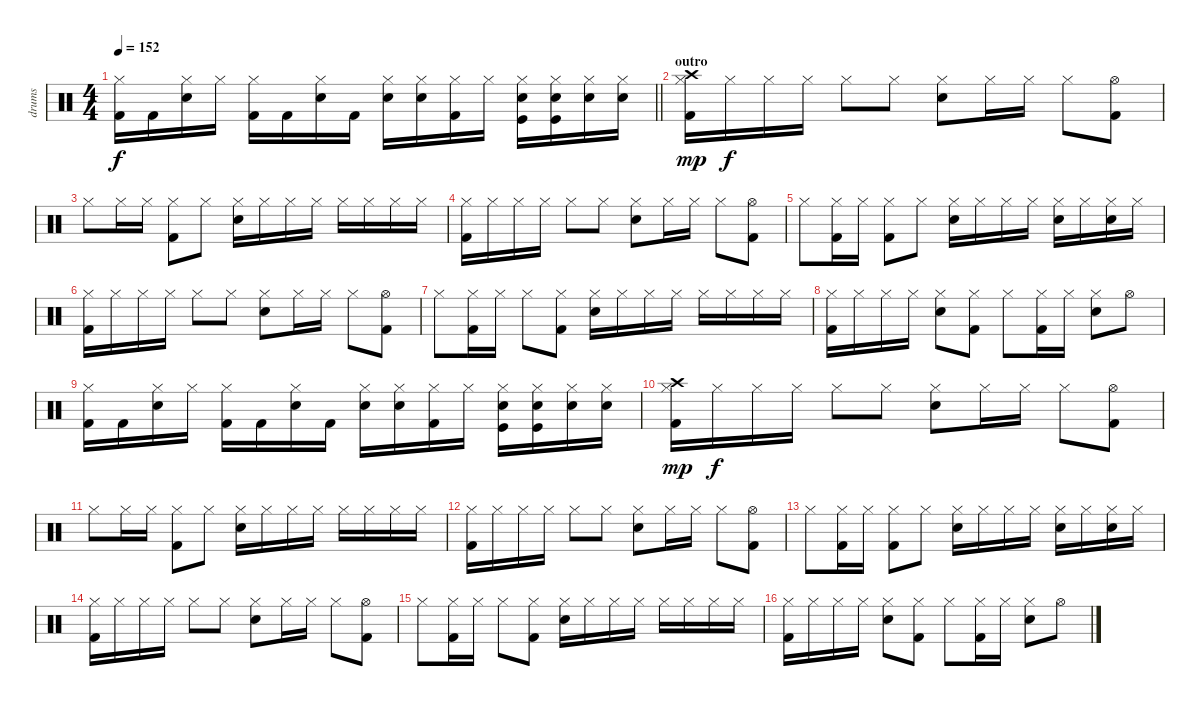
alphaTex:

\track ("drums" "drums") {instrument percussion}
\staff {score}
\articulation defaults
\ts (4 4)
\tempo 152
\clef neutral
\barLineRight lightlight
\ks c
("Hi-Hat (closed)" "Kick (hit) 2").16{dy f} "Kick (hit) 2".16 ("Hi-Hat (closed)" "Snare (hit) 2").16 "Hi-Hat (closed)".16 ("Hi-Hat (closed)" "Kick (hit) 2").16 "Kick (hit) 2".16 ("Hi-Hat (closed)" "Snare (hit) 2").16 "Kick (hit) 2".16 ("Hi-Hat (closed)" "Snare (hit) 2").16 ("Hi-Hat (closed)" "Snare (hit) 2").16 ("Hi-Hat (closed)" "Kick (hit) 2").16 "Hi-Hat (closed)".16 ("Hi-Hat (closed)" "Snare (hit) 2" "Kick (hit)").16 ("Hi-Hat (closed)" "Snare (hit) 2" "Kick (hit)").16 ("Hi-Hat (closed)" "Snare (hit) 2").16 ("Hi-Hat (closed)" "Snare (hit) 2").16 |
\section ("" "outro")
("Hi-Hat (closed)" "Kick (hit) 2" "Crash high (hit)").16{dy mp} "Hi-Hat (closed)".16{dy f} "Hi-Hat (closed)".16 "Hi-Hat (closed)".16 "Hi-Hat (closed)".8 "Hi-Hat (closed)".8 ("Snare (hit) 2" "Hi-Hat (closed)").8 "Hi-Hat (closed)".16 "Hi-Hat (closed)".16 "Hi-Hat (closed)".8 ("Hi-Hat (open)" "Kick (hit) 2").8 |
"Hi-Hat (closed)".8 "Hi-Hat (closed)".16 "Hi-Hat (closed)".16 ("Hi-Hat (closed)" "Kick (hit) 2").8 "Hi-Hat (closed)".8 ("Hi-Hat (closed)" "Snare (hit) 2").16 "Hi-Hat (closed)".16 "Hi-Hat (closed)".16 "Hi-Hat (closed)".16 "Hi-Hat (closed)".16 "Hi-Hat (closed)".16 "Hi-Hat (closed)".16 "Hi-Hat (closed)".16 |
("Hi-Hat (closed)" "Kick (hit) 2").16 "Hi-Hat (closed)".16 "Hi-Hat (closed)".16 "Hi-Hat (closed)".16 "Hi-Hat (closed)".8 "Hi-Hat (closed)".8 ("Snare (hit) 2" "Hi-Hat (closed)").8 "Hi-Hat (closed)".16 "Hi-Hat (closed)".16 "Hi-Hat (closed)".8 ("Hi-Hat (open)" "Kick (hit) 2").8 |
"Hi-Hat (closed)".8 ("Hi-Hat (closed)" "Kick (hit) 2").16 "Hi-Hat (closed)".16 ("Hi-Hat (closed)" "Kick (hit) 2").8 "Hi-Hat (closed)".8 ("Hi-Hat (closed)" "Snare (hit) 2").16 "Hi-Hat (closed)".16 "Hi-Hat (closed)".16 "Hi-Hat (closed)".16 ("Hi-Hat (closed)" "Snare (hit) 2").16 "Hi-Hat (closed)".16 ("Hi-Hat (closed)" "Snare (hit) 2").16 "Hi-Hat (closed)".16 |
("Hi-Hat (closed)" "Kick (hit) 2").16 "Hi-Hat (closed)".16 "Hi-Hat (closed)".16 "Hi-Hat (closed)".16 "Hi-Hat (closed)".8 "Hi-Hat (closed)".8 ("Snare (hit) 2" "Hi-Hat (closed)").8 "Hi-Hat (closed)".16 "Hi-Hat (closed)".16 "Hi-Hat (closed)".8 ("Hi-Hat (open)" "Kick (hit) 2").8 |
"Hi-Hat (closed)".8 ("Hi-Hat (closed)" "Kick (hit) 2").16 "Hi-Hat (closed)".16 "Hi-Hat (closed)".8 ("Hi-Hat (closed)" "Kick (hit) 2").8 ("Hi-Hat (closed)" "Snare (hit) 2").16 "Hi-Hat (closed)".16 "Hi-Hat (closed)".16 "Hi-Hat (closed)".16 "Hi-Hat (closed)".16 "Hi-Hat (closed)".16 "Hi-Hat (closed)".16 "Hi-Hat (closed)".16 |
("Hi-Hat (closed)" "Kick (hit) 2").16 "Hi-Hat (closed)".16 "Hi-Hat (closed)".16 "Hi-Hat (closed)".16 ("Hi-Hat (closed)" "Snare (hit) 2").8 ("Hi-Hat (closed)" "Kick (hit) 2").8 "Hi-Hat (closed)".8 ("Hi-Hat (closed)" "Kick (hit) 2").16 "Hi-Hat (closed)".16 ("Hi-Hat (closed)" "Snare (hit) 2").8 "Hi-Hat (open)".8 |
("Hi-Hat (closed)" "Kick (hit) 2").16 "Kick (hit) 2".16 ("Hi-Hat (closed)" "Snare (hit) 2").16 "Hi-Hat (closed)".16 ("Hi-Hat (closed)" "Kick (hit) 2").16 "Kick (hit) 2".16 ("Hi-Hat (closed)" "Snare (hit) 2").16 "Kick (hit) 2".16 ("Hi-Hat (closed)" "Snare (hit) 2").16 ("Hi-Hat (closed)" "Snare (hit) 2").16 ("Hi-Hat (closed)" "Kick (hit) 2").16 "Hi-Hat (closed)".16 ("Hi-Hat (closed)" "Snare (hit) 2" "Kick (hit)").16 ("Hi-Hat (closed)" "Snare (hit) 2" "Kick (hit)").16 ("Hi-Hat (closed)" "Snare (hit) 2").16 ("Hi-Hat (closed)" "Snare (hit) 2").16 |
("Hi-Hat (closed)" "Kick (hit) 2" "Crash high (hit)").16{dy mp} "Hi-Hat (closed)".16{dy f} "Hi-Hat (closed)".16 "Hi-Hat (closed)".16 "Hi-Hat (closed)".8 "Hi-Hat (closed)".8 ("Snare (hit) 2" "Hi-Hat (closed)").8 "Hi-Hat (closed)".16 "Hi-Hat (closed)".16 "Hi-Hat (closed)".8 ("Hi-Hat (open)" "Kick (hit) 2").8 |
"Hi-Hat (closed)".8 "Hi-Hat (closed)".16 "Hi-Hat (closed)".16 ("Hi-Hat (closed)" "Kick (hit) 2").8 "Hi-Hat (closed)".8 ("Hi-Hat (closed)" "Snare (hit) 2").16 "Hi-Hat (closed)".16 "Hi-Hat (closed)".16 "Hi-Hat (closed)".16 "Hi-Hat (closed)".16 "Hi-Hat (closed)".16 "Hi-Hat (closed)".16 "Hi-Hat (closed)".16 |
("Hi-Hat (closed)" "Kick (hit) 2").16 "Hi-Hat (closed)".16 "Hi-Hat (closed)".16 "Hi-Hat (closed)".16 "Hi-Hat (closed)".8 "Hi-Hat (closed)".8 ("Snare (hit) 2" "Hi-Hat (closed)").8 "Hi-Hat (closed)".16 "Hi-Hat (closed)".16 "Hi-Hat (closed)".8 ("Hi-Hat (open)" "Kick (hit) 2").8 |
"Hi-Hat (closed)".8 ("Hi-Hat (closed)" "Kick (hit) 2").16 "Hi-Hat (closed)".16 ("Hi-Hat (closed)" "Kick (hit) 2").8 "Hi-Hat (closed)".8 ("Hi-Hat (closed)" "Snare (hit) 2").16 "Hi-Hat (closed)".16 "Hi-Hat (closed)".16 "Hi-Hat (closed)".16 ("Hi-Hat (closed)" "Snare (hit) 2").16 "Hi-Hat (closed)".16 ("Hi-Hat (closed)" "Snare (hit) 2").16 "Hi-Hat (closed)".16 |
("Hi-Hat (closed)" "Kick (hit) 2").16 "Hi-Hat (closed)".16 "Hi-Hat (closed)".16 "Hi-Hat (closed)".16 "Hi-Hat (closed)".8 "Hi-Hat (closed)".8 ("Snare (hit) 2" "Hi-Hat (closed)").8 "Hi-Hat (closed)".16 "Hi-Hat (closed)".16 "Hi-Hat (closed)".8 ("Hi-Hat (open)" "Kick (hit) 2").8 |
"Hi-Hat (closed)".8 ("Hi-Hat (closed)" "Kick (hit) 2").16 "Hi-Hat (closed)".16 "Hi-Hat (closed)".8 ("Hi-Hat (closed)" "Kick (hit) 2").8 ("Hi-Hat (closed)" "Snare (hit) 2").16 "Hi-Hat (closed)".16 "Hi-Hat (closed)".16 "Hi-Hat (closed)".16 "Hi-Hat (closed)".16 "Hi-Hat (closed)".16 "Hi-Hat (closed)".16 "Hi-Hat (closed)".16 |
("Hi-Hat (closed)" "Kick (hit) 2").16 "Hi-Hat (closed)".16 "Hi-Hat (closed)".16 "Hi-Hat (closed)".16 ("Hi-Hat (closed)" "Snare (hit) 2").8 ("Hi-Hat (closed)" "Kick (hit) 2").8 "Hi-Hat (closed)".8 ("Hi-Hat (closed)" "Kick (hit) 2").16 "Hi-Hat (closed)".16 ("Hi-Hat (closed)" "Snare (hit) 2").8 "Hi-Hat (open)".8
